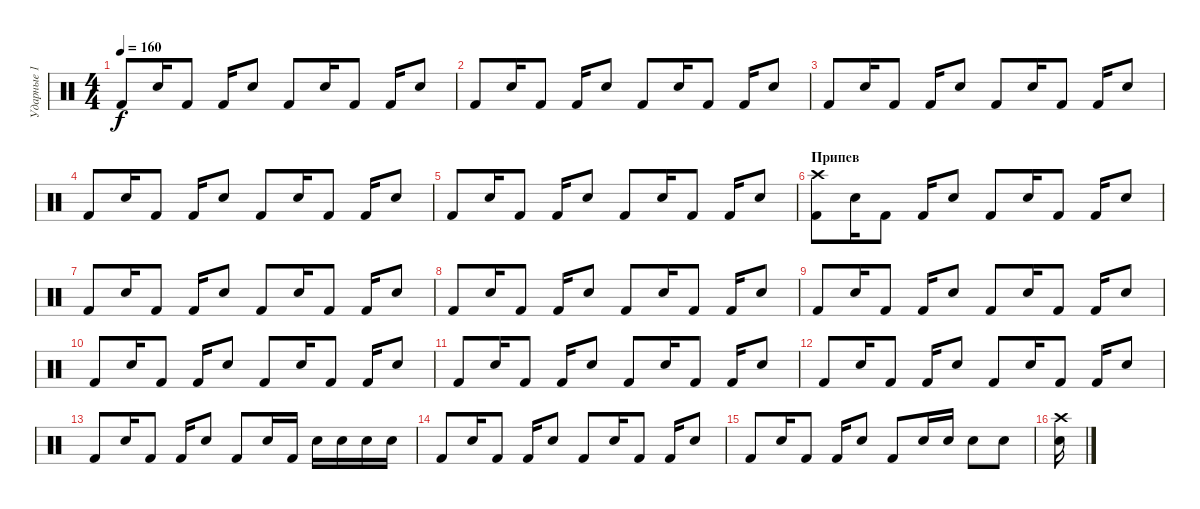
\track ("Ударные 1" "Ударные 1") {instrument percussion}
\staff {score}
\articulation defaults
\ts (4 4)
\tempo 160
\clef neutral
\ks c "Kick (hit) 2".8{dy f} "Snare (hit) 2".16 "Kick (hit) 2".8 "Kick (hit) 2".16 "Snare (hit) 2".8 "Kick (hit) 2".8 "Snare (hit) 2".16 "Kick (hit) 2".8 "Kick (hit) 2".16 "Snare (hit) 2".8
|
"Kick (hit) 2".8 "Snare (hit) 2".16 "Kick (hit) 2".8 "Kick (hit) 2".16 "Snare (hit) 2".8 "Kick (hit) 2".8 "Snare (hit) 2".16 "Kick (hit) 2".8 "Kick (hit) 2".16 "Snare (hit) 2".8 |
"Kick (hit) 2".8 "Snare (hit) 2".16 "Kick (hit) 2".8 "Kick (hit) 2".16 "Snare (hit) 2".8 "Kick (hit) 2".8 "Snare (hit) 2".16 "Kick (hit) 2".8 "Kick (hit) 2".16 "Snare (hit) 2".8 |
"Kick (hit) 2".8 "Snare (hit) 2".16 "Kick (hit) 2".8 "Kick (hit) 2".16 "Snare (hit) 2".8 "Kick (hit) 2".8 "Snare (hit) 2".16 "Kick (hit) 2".8 "Kick (hit) 2".16 "Snare (hit) 2".8 |
"Kick (hit) 2".8 "Snare (hit) 2".16 "Kick (hit) 2".8 "Kick (hit) 2".16 "Snare (hit) 2".8 "Kick (hit) 2".8 "Snare (hit) 2".16 "Kick (hit) 2".8 "Kick (hit) 2".16 "Snare (hit) 2".8 |
\section ("" "Припев")
("Kick (hit) 2" "Crash high (hit)").8 "Snare (hit) 2".16 "Kick (hit) 2".8 "Kick (hit) 2".16 "Snare (hit) 2".8 "Kick (hit) 2".8 "Snare (hit) 2".16 "Kick (hit) 2".8 "Kick (hit) 2".16 "Snare (hit) 2".8 |
"Kick (hit) 2".8 "Snare (hit) 2".16 "Kick (hit) 2".8 "Kick (hit) 2".16 "Snare (hit) 2".8 "Kick (hit) 2".8 "Snare (hit) 2".16 "Kick (hit) 2".8 "Kick (hit) 2".16 "Snare (hit) 2".8 |
"Kick (hit) 2".8 "Snare (hit) 2".16 "Kick (hit) 2".8 "Kick (hit) 2".16 "Snare (hit) 2".8 "Kick (hit) 2".8 "Snare (hit) 2".16 "Kick (hit) 2".8 "Kick (hit) 2".16 "Snare (hit) 2".8 |
"Kick (hit) 2".8 "Snare (hit) 2".16 "Kick (hit) 2".8 "Kick (hit) 2".16 "Snare (hit) 2".8 "Kick (hit) 2".8 "Snare (hit) 2".16 "Kick (hit) 2".8 "Kick (hit) 2".16 "Snare (hit) 2".8 |
"Kick (hit) 2".8 "Snare (hit) 2".16 "Kick (hit) 2".8 "Kick (hit) 2".16 "Snare (hit) 2".8 "Kick (hit) 2".8 "Snare (hit) 2".16 "Kick (hit) 2".8 "Kick (hit) 2".16 "Snare (hit) 2".8 |
"Kick (hit) 2".8 "Snare (hit) 2".16 "Kick (hit) 2".8 "Kick (hit) 2".16 "Snare (hit) 2".8 "Kick (hit) 2".8 "Snare (hit) 2".16 "Kick (hit) 2".8 "Kick (hit) 2".16 "Snare (hit) 2".8 |
"Kick (hit) 2".8 "Snare (hit) 2".16 "Kick (hit) 2".8 "Kick (hit) 2".16 "Snare (hit) 2".8 "Kick (hit) 2".8 "Snare (hit) 2".16 "Kick (hit) 2".8 "Kick (hit) 2".16 "Snare (hit) 2".8 |
"Kick (hit) 2".8 "Snare (hit) 2".16 "Kick (hit) 2".8 "Kick (hit) 2".16 "Snare (hit) 2".8 "Kick (hit) 2".8 "Snare (hit) 2".16 "Kick (hit) 2".16 "Snare (hit) 2".16 "Snare (hit) 2".16 "Snare (hit) 2".16 "Snare (hit) 2".16 |
"Kick (hit) 2".8 "Snare (hit) 2".16 "Kick (hit) 2".8 "Kick (hit) 2".16 "Snare (hit) 2".8 "Kick (hit) 2".8 "Snare (hit) 2".16 "Kick (hit) 2".8 "Kick (hit) 2".16 "Snare (hit) 2".8 |
"Kick (hit) 2".8 "Snare (hit) 2".16 "Kick (hit) 2".8 "Kick (hit) 2".16 "Snare (hit) 2".8 "Kick (hit) 2".8 "Snare (hit) 2".16 "Snare (hit) 2".16 "Snare (hit) 2".8 "Snare (hit) 2".8 |
("Snare (hit) 2" "Crash high (hit)").16
